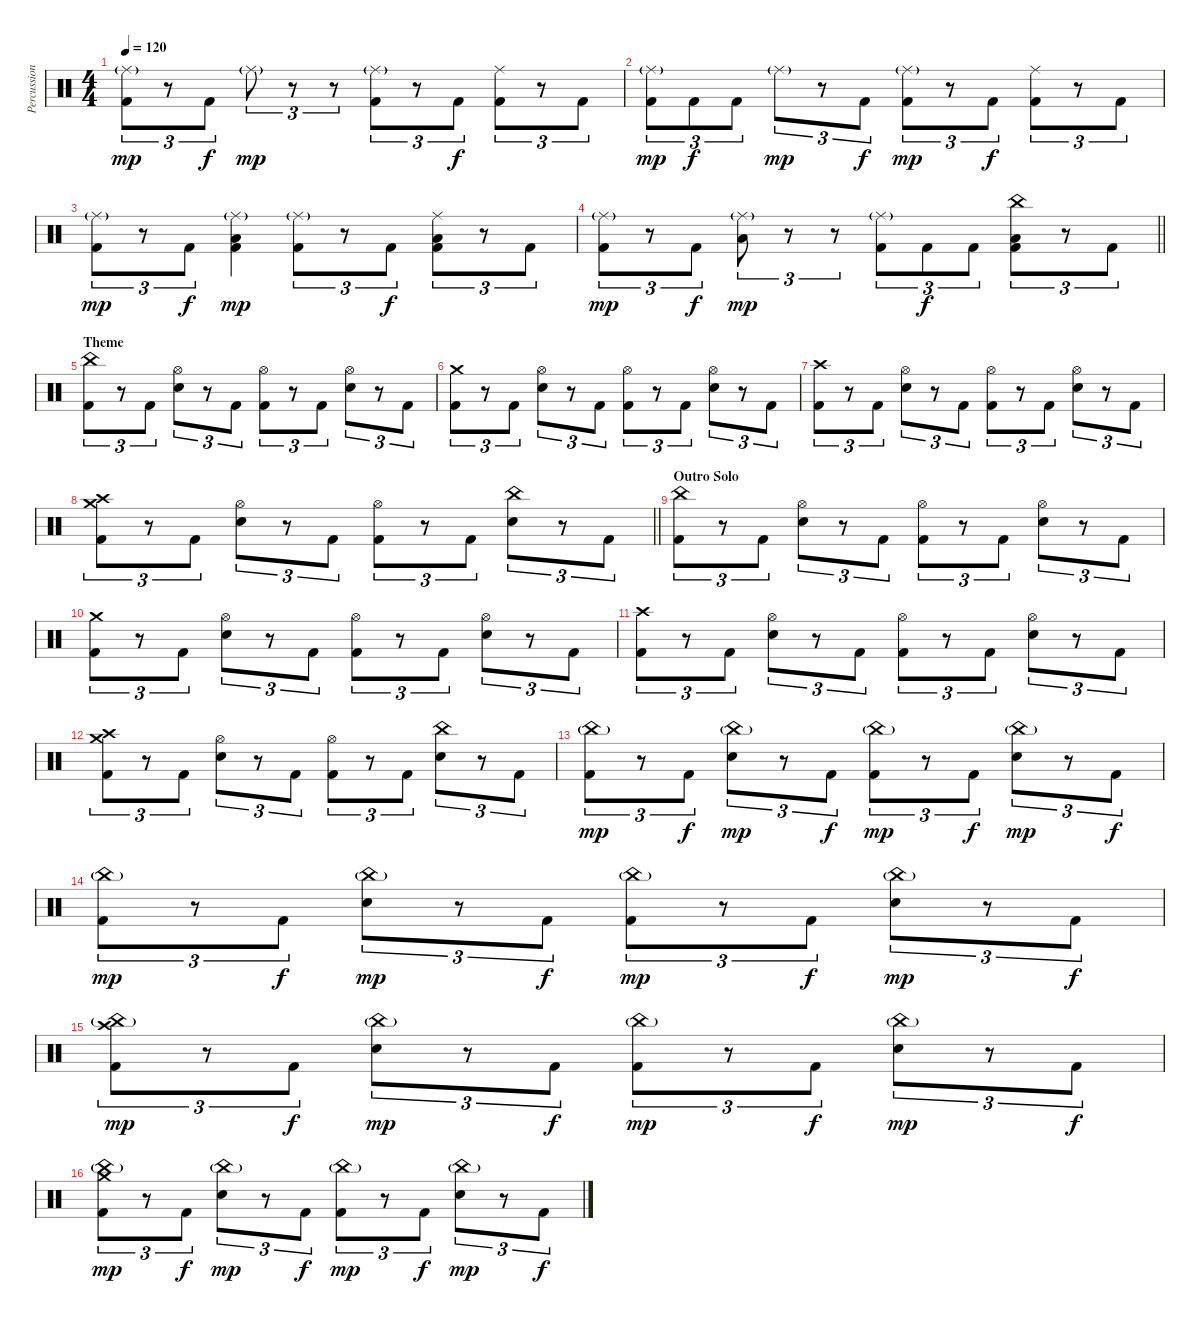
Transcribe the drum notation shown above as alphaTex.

\track ("Percussion" "Percussion") {instrument percussion}
\staff {score}
\articulation defaults
\ts (4 4)
\tempo 120
\clef neutral
\ks c
("Ride (middle)"{g} "Kick (hit) 2").8{tu (3 2) dy mp} r.8{tu (3 2)} "Kick (hit) 2".8{tu (3 2) dy f} "Ride (middle)"{g}.8{tu (3 2) dy mp} r.8{tu (3 2)} r.8{tu (3 2)} ("Ride (middle)"{g} "Kick (hit) 2").8{tu (3 2)} r.8{tu (3 2)} "Kick (hit) 2".8{tu (3 2) dy f} ("Ride (middle)" "Kick (hit) 2").8{tu (3 2)} r.8{tu (3 2)} "Kick (hit) 2".8{tu (3 2)} |
("Ride (middle)"{g} "Kick (hit) 2").8{tu (3 2) dy mp} "Kick (hit) 2".8{tu (3 2) dy f} "Kick (hit) 2".8{tu (3 2)} "Ride (middle)"{g}.8{tu (3 2) dy mp} r.8{tu (3 2)} "Kick (hit) 2".8{tu (3 2) dy f} ("Ride (middle)"{g} "Kick (hit) 2").8{tu (3 2) dy mp} r.8{tu (3 2)} "Kick (hit) 2".8{tu (3 2) dy f} ("Ride (middle)" "Kick (hit) 2").8{tu (3 2)} r.8{tu (3 2)} "Kick (hit) 2".8{tu (3 2)} |
("Ride (middle)"{g} "Kick (hit) 2").8{tu (3 2) dy mp} r.8{tu (3 2)} "Kick (hit) 2".8{tu (3 2) dy f} ("Ride (middle)"{g} "Low Floor Tom (hit)" "Kick (hit) 2").4{dy mp} ("Ride (middle)"{g} "Kick (hit) 2").8{tu (3 2)} r.8{tu (3 2)} "Kick (hit) 2".8{tu (3 2) dy f} ("Ride (middle)" "Low Floor Tom (hit)" "Kick (hit) 2").8{tu (3 2)} r.8{tu (3 2)} "Kick (hit) 2".8{tu (3 2)} |
\barLineRight lightlight
("Ride (middle)"{g} "Kick (hit) 2").8{tu (3 2) dy mp} r.8{tu (3 2)} "Kick (hit) 2".8{tu (3 2) dy f} ("Ride (middle)"{g} "Low Floor Tom (hit)").8{tu (3 2) dy mp} r.8{tu (3 2)} r.8{tu (3 2)} ("Ride (middle)"{g} "Kick (hit) 2").8{tu (3 2)} "Kick (hit) 2".8{tu (3 2) dy f} "Kick (hit) 2".8{tu (3 2)} ("China (hit)" "Low Floor Tom (hit)" "Kick (hit) 2").8{tu (3 2)} r.8{tu (3 2)} "Kick (hit) 2".8{tu (3 2)} |
\section ("" "Theme")
("China (hit)" "Kick (hit) 2").8{tu (3 2)} r.8{tu (3 2)} "Kick (hit) 2".8{tu (3 2)} ("Hi-Hat (open)" "Snare (hit) 2").8{tu (3 2)} r.8{tu (3 2)} "Kick (hit) 2".8{tu (3 2)} ("Hi-Hat (open)" "Kick (hit) 2").8{tu (3 2)} r.8{tu (3 2)} "Kick (hit) 2".8{tu (3 2)} ("Hi-Hat (open)" "Snare (hit) 2").8{tu (3 2)} r.8{tu (3 2)} "Kick (hit) 2".8{tu (3 2)} |
("Crash medium (hit)" "Kick (hit) 2").8{tu (3 2)} r.8{tu (3 2)} "Kick (hit) 2".8{tu (3 2)} ("Hi-Hat (open)" "Snare (hit) 2").8{tu (3 2)} r.8{tu (3 2)} "Kick (hit) 2".8{tu (3 2)} ("Hi-Hat (open)" "Kick (hit) 2").8{tu (3 2)} r.8{tu (3 2)} "Kick (hit) 2".8{tu (3 2)} ("Hi-Hat (open)" "Snare (hit) 2").8{tu (3 2)} r.8{tu (3 2)} "Kick (hit) 2".8{tu (3 2)} |
("Crash high (hit)" "Kick (hit) 2").8{tu (3 2)} r.8{tu (3 2)} "Kick (hit) 2".8{tu (3 2)} ("Hi-Hat (open)" "Snare (hit) 2").8{tu (3 2)} r.8{tu (3 2)} "Kick (hit) 2".8{tu (3 2)} ("Hi-Hat (open)" "Kick (hit) 2").8{tu (3 2)} r.8{tu (3 2)} "Kick (hit) 2".8{tu (3 2)} ("Hi-Hat (open)" "Snare (hit) 2").8{tu (3 2)} r.8{tu (3 2)} "Kick (hit) 2".8{tu (3 2)} |
\barLineRight lightlight
("Crash medium (hit)" "Crash high (hit)" "Kick (hit) 2").8{tu (3 2)} r.8{tu (3 2)} "Kick (hit) 2".8{tu (3 2)} ("Hi-Hat (open)" "Snare (hit) 2").8{tu (3 2)} r.8{tu (3 2)} "Kick (hit) 2".8{tu (3 2)} ("Hi-Hat (open)" "Kick (hit) 2").8{tu (3 2)} r.8{tu (3 2)} "Kick (hit) 2".8{tu (3 2)} ("China (hit)" "Snare (hit) 2").8{tu (3 2)} r.8{tu (3 2)} "Kick (hit) 2".8{tu (3 2)} |
\section ("" "Outro Solo")
("China (hit)" "Kick (hit) 2").8{tu (3 2)} r.8{tu (3 2)} "Kick (hit) 2".8{tu (3 2)} ("Hi-Hat (open)" "Snare (hit) 2").8{tu (3 2)} r.8{tu (3 2)} "Kick (hit) 2".8{tu (3 2)} ("Hi-Hat (open)" "Kick (hit) 2").8{tu (3 2)} r.8{tu (3 2)} "Kick (hit) 2".8{tu (3 2)} ("Hi-Hat (open)" "Snare (hit) 2").8{tu (3 2)} r.8{tu (3 2)} "Kick (hit) 2".8{tu (3 2)} |
("Crash medium (hit)" "Kick (hit) 2").8{tu (3 2)} r.8{tu (3 2)} "Kick (hit) 2".8{tu (3 2)} ("Hi-Hat (open)" "Snare (hit) 2").8{tu (3 2)} r.8{tu (3 2)} "Kick (hit) 2".8{tu (3 2)} ("Hi-Hat (open)" "Kick (hit) 2").8{tu (3 2)} r.8{tu (3 2)} "Kick (hit) 2".8{tu (3 2)} ("Hi-Hat (open)" "Snare (hit) 2").8{tu (3 2)} r.8{tu (3 2)} "Kick (hit) 2".8{tu (3 2)} |
("Crash high (hit)" "Kick (hit) 2").8{tu (3 2)} r.8{tu (3 2)} "Kick (hit) 2".8{tu (3 2)} ("Hi-Hat (open)" "Snare (hit) 2").8{tu (3 2)} r.8{tu (3 2)} "Kick (hit) 2".8{tu (3 2)} ("Hi-Hat (open)" "Kick (hit) 2").8{tu (3 2)} r.8{tu (3 2)} "Kick (hit) 2".8{tu (3 2)} ("Hi-Hat (open)" "Snare (hit) 2").8{tu (3 2)} r.8{tu (3 2)} "Kick (hit) 2".8{tu (3 2)} |
("Crash medium (hit)" "Crash high (hit)" "Kick (hit) 2").8{tu (3 2)} r.8{tu (3 2)} "Kick (hit) 2".8{tu (3 2)} ("Hi-Hat (open)" "Snare (hit) 2").8{tu (3 2)} r.8{tu (3 2)} "Kick (hit) 2".8{tu (3 2)} ("Hi-Hat (open)" "Kick (hit) 2").8{tu (3 2)} r.8{tu (3 2)} "Kick (hit) 2".8{tu (3 2)} ("China (hit)" "Snare (hit) 2").8{tu (3 2)} r.8{tu (3 2)} "Kick (hit) 2".8{tu (3 2)} |
("China (hit)"{g} "Kick (hit) 2").8{tu (3 2) dy mp} r.8{tu (3 2)} "Kick (hit) 2".8{tu (3 2) dy f} ("China (hit)"{g} "Snare (hit) 2").8{tu (3 2) dy mp} r.8{tu (3 2)} "Kick (hit) 2".8{tu (3 2) dy f} ("China (hit)"{g} "Kick (hit) 2").8{tu (3 2) dy mp} r.8{tu (3 2)} "Kick (hit) 2".8{tu (3 2) dy f} ("China (hit)"{g} "Snare (hit) 2").8{tu (3 2) dy mp} r.8{tu (3 2)} "Kick (hit) 2".8{tu (3 2) dy f} |
("China (hit)"{g} "Kick (hit) 2").8{tu (3 2) dy mp} r.8{tu (3 2)} "Kick (hit) 2".8{tu (3 2) dy f} ("China (hit)"{g} "Snare (hit) 2").8{tu (3 2) dy mp} r.8{tu (3 2)} "Kick (hit) 2".8{tu (3 2) dy f} ("China (hit)"{g} "Kick (hit) 2").8{tu (3 2) dy mp} r.8{tu (3 2)} "Kick (hit) 2".8{tu (3 2) dy f} ("China (hit)"{g} "Snare (hit) 2").8{tu (3 2) dy mp} r.8{tu (3 2)} "Kick (hit) 2".8{tu (3 2) dy f} |
("Crash high (hit)" "China (hit)"{g} "Kick (hit) 2").8{tu (3 2) dy mp} r.8{tu (3 2)} "Kick (hit) 2".8{tu (3 2) dy f} ("China (hit)"{g} "Snare (hit) 2").8{tu (3 2) dy mp} r.8{tu (3 2)} "Kick (hit) 2".8{tu (3 2) dy f} ("China (hit)"{g} "Kick (hit) 2").8{tu (3 2) dy mp} r.8{tu (3 2)} "Kick (hit) 2".8{tu (3 2) dy f} ("China (hit)"{g} "Snare (hit) 2").8{tu (3 2) dy mp} r.8{tu (3 2)} "Kick (hit) 2".8{tu (3 2) dy f} |
("Crash medium (hit)" "China (hit)"{g} "Kick (hit) 2").8{tu (3 2) dy mp} r.8{tu (3 2)} "Kick (hit) 2".8{tu (3 2) dy f} ("China (hit)"{g} "Snare (hit) 2").8{tu (3 2) dy mp} r.8{tu (3 2)} "Kick (hit) 2".8{tu (3 2) dy f} ("China (hit)"{g} "Kick (hit) 2").8{tu (3 2) dy mp} r.8{tu (3 2)} "Kick (hit) 2".8{tu (3 2) dy f} ("China (hit)"{g} "Snare (hit) 2").8{tu (3 2) dy mp} r.8{tu (3 2)} "Kick (hit) 2".8{tu (3 2) dy f}
